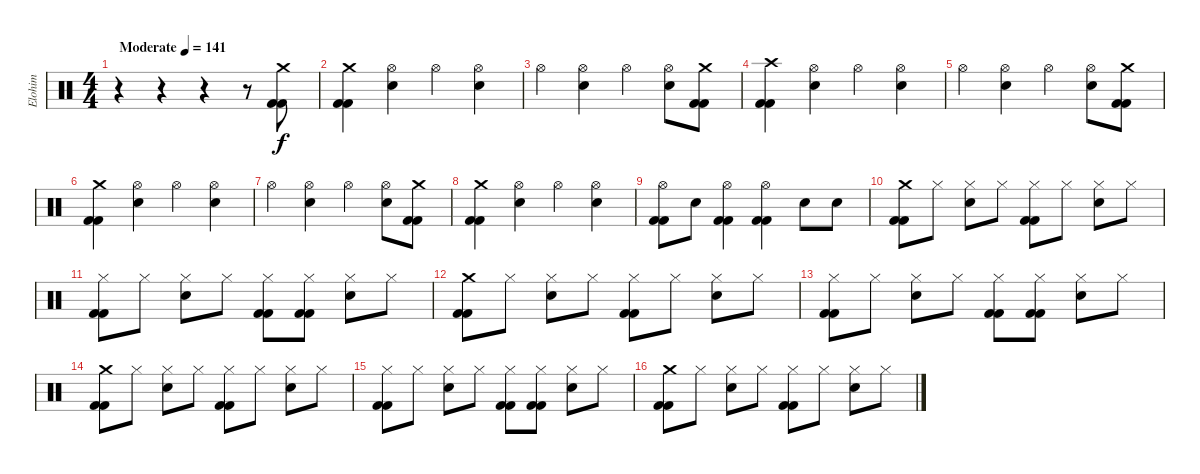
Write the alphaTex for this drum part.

\track ("Elohim" "Elohim") {instrument percussion}
\staff {score}
\articulation defaults
\ts (4 4)
\tempo (141 "Moderate")
\clef neutral
\ks c
r.4{dy f} r.4 r.4 r.8 ("Crash medium (hit)" "Kick (hit) 2" "Kick (hit) 2").8 |
("Crash medium (hit)" "Kick (hit) 2" "Kick (hit) 2").4 ("Hi-Hat (open)" "Snare (hit) 2").4 "Hi-Hat (open)".4 ("Hi-Hat (open)" "Snare (hit) 2").4 |
"Hi-Hat (open)".4 ("Hi-Hat (open)" "Snare (hit) 2").4 "Hi-Hat (open)".4 ("Hi-Hat (open)" "Snare (hit) 2").8 ("Crash medium (hit)" "Kick (hit) 2" "Kick (hit) 2").8 |
("Crash high (hit)" "Kick (hit) 2" "Kick (hit) 2").4 ("Hi-Hat (open)" "Snare (hit) 2").4 "Hi-Hat (open)".4 ("Hi-Hat (open)" "Snare (hit) 2").4 |
"Hi-Hat (open)".4 ("Hi-Hat (open)" "Snare (hit) 2").4 "Hi-Hat (open)".4 ("Hi-Hat (open)" "Snare (hit) 2").8 ("Crash medium (hit)" "Kick (hit) 2" "Kick (hit) 2").8 |
("Crash medium (hit)" "Kick (hit) 2" "Kick (hit) 2").4 ("Hi-Hat (open)" "Snare (hit) 2").4 "Hi-Hat (open)".4 ("Hi-Hat (open)" "Snare (hit) 2").4 |
"Hi-Hat (open)".4 ("Hi-Hat (open)" "Snare (hit) 2").4 "Hi-Hat (open)".4 ("Hi-Hat (open)" "Snare (hit) 2").8 ("Crash medium (hit)" "Kick (hit) 2" "Kick (hit) 2").8 |
("Crash medium (hit)" "Kick (hit) 2" "Kick (hit) 2").4 ("Hi-Hat (open)" "Snare (hit) 2").4 "Hi-Hat (open)".4 ("Hi-Hat (open)" "Snare (hit) 2").4 |
("Hi-Hat (open)" "Kick (hit) 2" "Kick (hit) 2").8 "Snare (hit) 2".8 ("Hi-Hat (open)" "Kick (hit) 2" "Kick (hit) 2").4 ("Hi-Hat (open)" "Kick (hit) 2" "Kick (hit) 2").4 "Snare (hit) 2".8 "Snare (hit) 2".8 |
("Crash medium (hit)" "Kick (hit) 2" "Kick (hit) 2").8 "Hi-Hat (closed)".8 ("Hi-Hat (closed)" "Snare (hit) 2").8 "Hi-Hat (closed)".8 ("Hi-Hat (closed)" "Kick (hit) 2" "Kick (hit) 2").8 "Hi-Hat (closed)".8 ("Hi-Hat (closed)" "Snare (hit) 2").8 "Hi-Hat (closed)".8 |
("Hi-Hat (closed)" "Kick (hit) 2" "Kick (hit) 2").8 "Hi-Hat (closed)".8 ("Hi-Hat (closed)" "Snare (hit) 2").8 "Hi-Hat (closed)".8 ("Hi-Hat (closed)" "Kick (hit) 2" "Kick (hit) 2").8 ("Hi-Hat (closed)" "Kick (hit) 2" "Kick (hit) 2").8 ("Hi-Hat (closed)" "Snare (hit) 2").8 "Hi-Hat (closed)".8 |
("Crash medium (hit)" "Kick (hit) 2" "Kick (hit) 2").8 "Hi-Hat (closed)".8 ("Hi-Hat (closed)" "Snare (hit) 2").8 "Hi-Hat (closed)".8 ("Hi-Hat (closed)" "Kick (hit) 2" "Kick (hit) 2").8 "Hi-Hat (closed)".8 ("Hi-Hat (closed)" "Snare (hit) 2").8 "Hi-Hat (closed)".8 |
("Hi-Hat (closed)" "Kick (hit) 2" "Kick (hit) 2").8 "Hi-Hat (closed)".8 ("Hi-Hat (closed)" "Snare (hit) 2").8 "Hi-Hat (closed)".8 ("Hi-Hat (closed)" "Kick (hit) 2" "Kick (hit) 2").8 ("Hi-Hat (closed)" "Kick (hit) 2" "Kick (hit) 2").8 ("Hi-Hat (closed)" "Snare (hit) 2").8 "Hi-Hat (closed)".8 |
("Crash medium (hit)" "Kick (hit) 2" "Kick (hit) 2").8 "Hi-Hat (closed)".8 ("Hi-Hat (closed)" "Snare (hit) 2").8 "Hi-Hat (closed)".8 ("Hi-Hat (closed)" "Kick (hit) 2" "Kick (hit) 2").8 "Hi-Hat (closed)".8 ("Hi-Hat (closed)" "Snare (hit) 2").8 "Hi-Hat (closed)".8 |
("Hi-Hat (closed)" "Kick (hit) 2" "Kick (hit) 2").8 "Hi-Hat (closed)".8 ("Hi-Hat (closed)" "Snare (hit) 2").8 "Hi-Hat (closed)".8 ("Hi-Hat (closed)" "Kick (hit) 2" "Kick (hit) 2").8 ("Hi-Hat (closed)" "Kick (hit) 2" "Kick (hit) 2").8 ("Hi-Hat (closed)" "Snare (hit) 2").8 "Hi-Hat (closed)".8 |
("Crash medium (hit)" "Kick (hit) 2" "Kick (hit) 2").8 "Hi-Hat (closed)".8 ("Hi-Hat (closed)" "Snare (hit) 2").8 "Hi-Hat (closed)".8 ("Hi-Hat (closed)" "Kick (hit) 2" "Kick (hit) 2").8 "Hi-Hat (closed)".8 ("Hi-Hat (closed)" "Snare (hit) 2").8 "Hi-Hat (closed)".8
